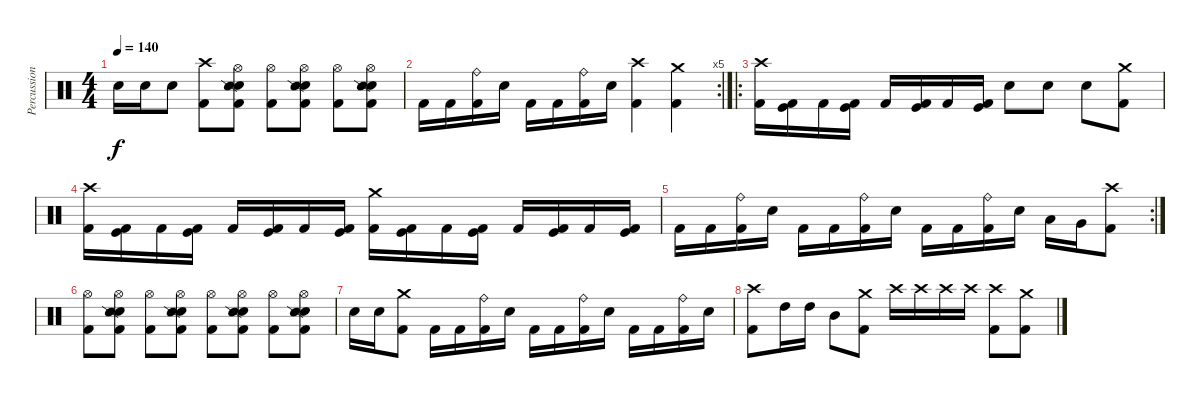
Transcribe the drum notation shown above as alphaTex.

\track ("Percussion" "Percussion") {instrument percussion}
\staff {score}
\articulation defaults
\ts (4 4)
\tempo 140
\clef neutral
\ks c "Electric Snare (hit)".16{dy f} "Electric Snare (hit)".16 "Electric Snare (hit)".8
("Crash high (hit)" "Kick (hit) 2").8 ("Hi-Hat (open)" "Electric Snare (hit)" "Snare (side stick) 2" "Kick (hit) 2").8 ("Hi-Hat (open)" "Kick (hit) 2").8 ("Hi-Hat (open)" "Electric Snare (hit)" "Snare (side stick) 2" "Kick (hit) 2").8 ("Hi-Hat (open)" "Kick (hit) 2").8 ("Hi-Hat (open)" "Electric Snare (hit)" "Snare (side stick) 2" "Kick (hit) 2").8 |
\rc 5 "Kick (hit) 2".16 "Kick (hit) 2".16
("Ride (bell)" "Kick (hit) 2").16 "Electric Snare (hit)".16 "Kick (hit) 2".16 "Kick (hit) 2".16 ("Ride (bell)" "Kick (hit) 2").16 "Electric Snare (hit)".16 ("Crash high (hit)" "Kick (hit) 2").4 ("Crash medium (hit)" "Kick (hit) 2").4 |
\ro
("Crash high (hit)" "Kick (hit) 2").16 ("Kick (hit)" "Kick (hit) 2").16 "Kick (hit) 2".16 ("Kick (hit)" "Kick (hit) 2").16 "Kick (hit) 2".16 ("Kick (hit)" "Kick (hit) 2").16 "Kick (hit) 2".16 ("Kick (hit)" "Kick (hit) 2").16 "Electric Snare (hit)".8 "Electric Snare (hit)".8 "Electric Snare (hit)".8 ("Crash medium (hit)" "Kick (hit) 2").8 |
("Crash high (hit)" "Kick (hit) 2").16 ("Kick (hit)" "Kick (hit) 2").16 "Kick (hit) 2".16 ("Kick (hit)" "Kick (hit) 2").16 "Kick (hit) 2".16 ("Kick (hit)" "Kick (hit) 2").16 "Kick (hit) 2".16 ("Kick (hit)" "Kick (hit) 2").16 ("Crash medium (hit)" "Kick (hit) 2").16 ("Kick (hit)" "Kick (hit) 2").16 "Kick (hit) 2".16 ("Kick (hit)" "Kick (hit) 2").16 "Kick (hit) 2".16 ("Kick (hit)" "Kick (hit) 2").16 "Kick (hit) 2".16 ("Kick (hit)" "Kick (hit) 2").16 |
\rc 2 "Kick (hit) 2".16 "Kick (hit) 2".16
("Ride (bell)" "Kick (hit) 2").16 "Electric Snare (hit)".16 "Kick (hit) 2".16 "Kick (hit) 2".16 ("Ride (bell)" "Kick (hit) 2").16 "Electric Snare (hit)".16 "Kick (hit) 2".16 "Kick (hit) 2".16 ("Ride (bell)" "Kick (hit) 2").16 "Electric Snare (hit)".16 "Low Tom (hit)".16 "Very Low Tom (hit)".16 ("Crash high (hit)" "Kick (hit) 2").8 |
("Hi-Hat (open)" "Kick (hit) 2").8 ("Hi-Hat (open)" "Electric Snare (hit)" "Snare (side stick) 2" "Kick (hit) 2").8 ("Hi-Hat (open)" "Kick (hit) 2").8 ("Hi-Hat (open)" "Electric Snare (hit)" "Snare (side stick) 2" "Kick (hit) 2").8 ("Hi-Hat (open)" "Kick (hit) 2").8 ("Hi-Hat (open)" "Electric Snare (hit)" "Snare (side stick) 2" "Kick (hit) 2").8 ("Hi-Hat (open)" "Kick (hit) 2").8 ("Hi-Hat (open)" "Electric Snare (hit)" "Snare (side stick) 2" "Kick (hit) 2").8 |
"Electric Snare (hit)".16 "Electric Snare (hit)".16 ("Crash medium (hit)" "Kick (hit) 2").8 "Kick (hit) 2".16 "Kick (hit) 2".16 ("Ride (bell)" "Kick (hit) 2").16 "Electric Snare (hit)".16 "Kick (hit) 2".16 "Kick (hit) 2".16 ("Ride (bell)" "Kick (hit) 2").16 "Electric Snare (hit)".16 "Kick (hit) 2".16 "Kick (hit) 2".16 ("Ride (bell)" "Kick (hit) 2").16 "Electric Snare (hit)".16 |
("Crash high (hit)" "Kick (hit) 2").8 "High Tom (hit)".16 "High Tom (hit)".16 "Mid Tom (hit)".8 ("Crash medium (hit)" "Kick (hit) 2").8 "Crash high (hit)".16 "Crash high (hit)".16 "Crash high (hit)".16 "Crash high (hit)".16 ("Crash high (hit)" "Kick (hit) 2").8 ("Crash medium (hit)" "Kick (hit) 2").8
